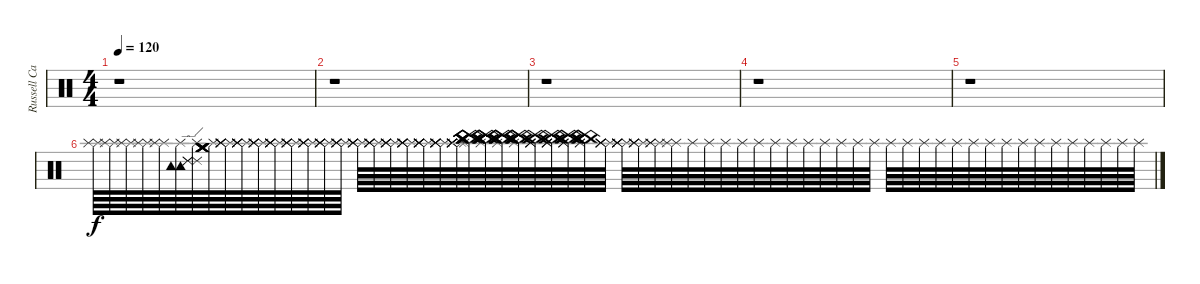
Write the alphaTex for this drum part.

\track ("Russell Cannon" "Russell Ca") {instrument percussion}
\staff {score}
\articulation defaults
\ts (4 4)
\tempo 120
\clef neutral
\ks c
r.1{dy f} |
r.1 |
r.1 |
r.1 |
r.1 |
("Splash (hit)" "Splash (hit)").64 ("Splash (hit)" "Splash (hit)").64 ("Splash (hit)" "Splash (hit)").64 ("Splash (hit)" "Splash (hit)").64 ("Splash (hit)" "Splash (hit)").64 ("Splash (hit)" "Tambourine (hit)" "Tambourine (hit)").64 ("Splash (hit)" "Ride (edge) 2" "Ride (edge) 2" "Ride (edge) 2").64 ("Splash (hit)" "Crash medium (hit)" "Crash medium (hit)" "Crash medium (hit)" "Crash medium (hit)").64 ("Splash (hit)" "Splash (hit)" "Splash (hit)" "Splash (hit)" "Splash (hit)").64 ("Splash (hit)" "Splash (hit)" "Splash (hit)" "Splash (hit)" "Splash (hit)").64 ("Splash (hit)" "Splash (hit)" "Splash (hit)" "Splash (hit)" "Splash (hit)").64 ("Splash (hit)" "Splash (hit)" "Splash (hit)" "Splash (hit)" "Splash (hit)").64 ("Splash (hit)" "Splash (hit)" "Splash (hit)" "Splash (hit)" "Splash (hit)").64 ("Splash (hit)" "Splash (hit)" "Splash (hit)" "Splash (hit)" "Splash (hit)").64 ("Splash (hit)" "Splash (hit)" "Splash (hit)" "Splash (hit)" "Splash (hit)").64 ("Splash (hit)" "Splash (hit)" "Splash (hit)" "Splash (hit)" "Splash (hit)").64 ("Splash (hit)" "Splash (hit)" "Splash (hit)" "Splash (hit)" "Splash (hit)").64 ("Splash (hit)" "Splash (hit)" "Splash (hit)" "Splash (hit)" "Splash (hit)").64 ("Splash (hit)" "Splash (hit)" "Splash (hit)" "Splash (hit)" "Splash (hit)").64 ("Splash (hit)" "Splash (hit)" "Splash (hit)" "Splash (hit)" "Splash (hit)" "Splash (hit)").64 ("Splash (hit)" "Splash (hit)" "Splash (hit)" "Splash (hit)" "Splash (hit)" "Splash (hit)").64 ("Splash (hit)" "Splash (hit)" "Splash (hit)" "Splash (hit)" "Splash (hit)" "Splash (hit)").64 ("Splash (hit)" "Splash (hit)" "Splash (hit)" "Splash (hit)" "Splash (hit)" "Splash (hit)").64 ("Splash (hit)" "China (hit)" "China (hit)" "China (hit)" "China (hit)" "China (hit)").64 ("Splash (hit)" "China (hit)" "China (hit)" "China (hit)" "China (hit)" "China (hit)").64 ("Splash (hit)" "China (hit)" "China (hit)" "China (hit)" "China (hit)" "China (hit)").64 ("Splash (hit)" "China (hit)" "China (hit)" "China (hit)" "China (hit)" "China (hit)").64 ("Splash (hit)" "Splash (hit)" "Splash (hit)" "Splash (hit)" "China (hit)" "China (hit)").64 ("Splash (hit)" "Splash (hit)" "Splash (hit)" "Splash (hit)" "China (hit)" "China (hit)").64 ("Splash (hit)" "Splash (hit)" "Splash (hit)" "China (hit)" "China (hit)" "China (hit)").64 ("Splash (hit)" "Splash (hit)" "China (hit)" "China (hit)" "China (hit)" "China (hit)").64 ("Splash (hit)" "Splash (hit)" "Splash (hit)" "Splash (hit)" "Splash (hit)").64 ("Splash (hit)" "Splash (hit)" "Splash (hit)" "Splash (hit)" "Splash (hit)").64 ("Splash (hit)" "Splash (hit)" "Splash (hit)" "Splash (hit)").64 ("Splash (hit)" "Splash (hit)" "Splash (hit)").64 ("Splash (hit)" "Splash (hit)").64 "Splash (hit)".64 "Splash (hit)".64 "Splash (hit)".64 "Splash (hit)".64 "Splash (hit)".64 "Splash (hit)".64 "Splash (hit)".64 "Splash (hit)".64 "Splash (hit)".64 "Splash (hit)".64 "Splash (hit)".64 "Splash (hit)".64 "Splash (hit)".64 "Splash (hit)".64 "Splash (hit)".64 "Splash (hit)".64 "Splash (hit)".64 "Splash (hit)".64 "Splash (hit)".64 "Splash (hit)".64 "Splash (hit)".64 "Splash (hit)".64 "Splash (hit)".64 "Splash (hit)".64 "Splash (hit)".64 "Splash (hit)".64 "Splash (hit)".64 "Splash (hit)".64
